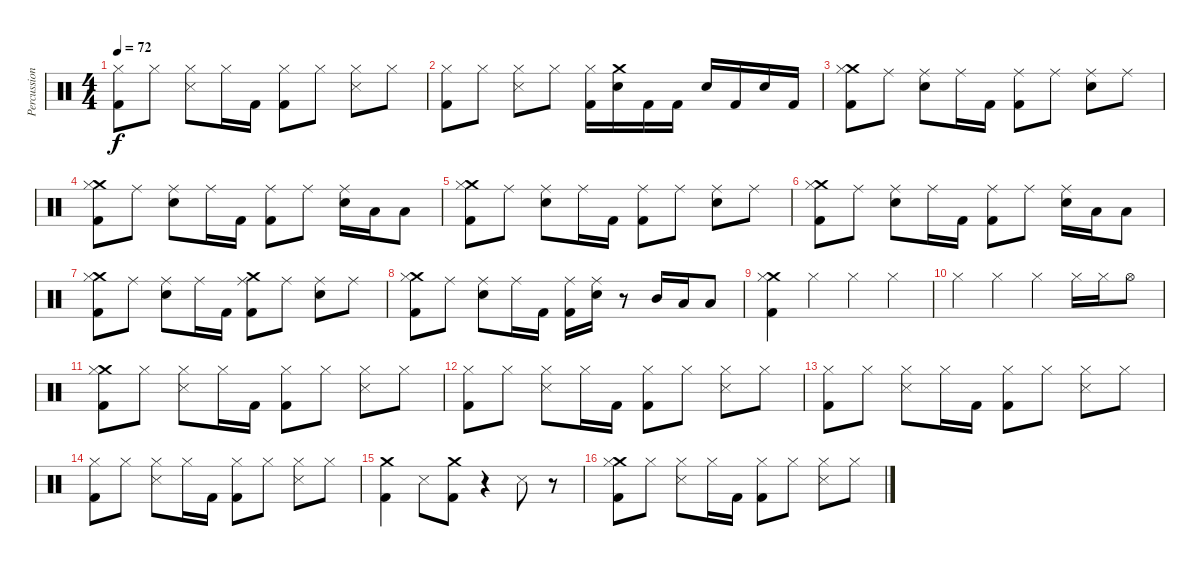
\track ("Percussion" "Percussion") {instrument percussion}
\staff {score}
\articulation defaults
\ts (4 4)
\tempo 72
\clef neutral
\ks c
("Hi-Hat (closed)" "Kick (hit) 2").8{dy f} "Hi-Hat (closed)".8 ("Hi-Hat (closed)" "Metronome (hit)").8 "Hi-Hat (closed)".16 "Kick (hit) 2".16 ("Hi-Hat (closed)" "Kick (hit) 2").8 "Hi-Hat (closed)".8 ("Hi-Hat (closed)" "Metronome (hit)").8 "Hi-Hat (closed)".8 |
("Hi-Hat (closed)" "Kick (hit) 2").8 "Hi-Hat (closed)".8 ("Hi-Hat (closed)" "Metronome (hit)").8 "Hi-Hat (closed)".8 ("Hi-Hat (closed)" "Kick (hit) 2").16 ("Crash medium (hit)" "Snare (hit) 2").16 "Kick (hit) 2".16 "Kick (hit) 2".16 "Snare (hit) 2".16 "Kick (hit) 2".16 "Snare (hit) 2".16 "Kick (hit) 2".16 |
("Crash medium (hit)" "Hi-Hat (closed)" "Kick (hit) 2").8 "Ride (middle)".8 ("Ride (middle)" "Snare (hit) 2").8 "Ride (middle)".16 "Kick (hit) 2".16 ("Ride (middle)" "Kick (hit) 2").8 "Ride (middle)".8 ("Ride (middle)" "Snare (hit) 2").8 "Ride (middle)".8 |
("Crash medium (hit)" "Hi-Hat (closed)" "Kick (hit) 2").8 "Ride (middle)".8 ("Ride (middle)" "Snare (hit) 2").8 "Ride (middle)".16 "Kick (hit) 2".16 ("Ride (middle)" "Kick (hit) 2").8 "Ride (middle)".8 ("Ride (middle)" "Snare (hit) 2").16 "Low Tom (hit)".16 "Low Floor Tom (hit)".8 |
("Crash medium (hit)" "Hi-Hat (closed)" "Kick (hit) 2").8 "Ride (middle)".8 ("Ride (middle)" "Snare (hit) 2").8 "Ride (middle)".16 "Kick (hit) 2".16 ("Ride (middle)" "Kick (hit) 2").8 "Ride (middle)".8 ("Ride (middle)" "Snare (hit) 2").8 "Ride (middle)".8 |
("Crash medium (hit)" "Hi-Hat (closed)" "Kick (hit) 2").8 "Ride (middle)".8 ("Ride (middle)" "Snare (hit) 2").8 "Ride (middle)".16 "Kick (hit) 2".16 ("Ride (middle)" "Kick (hit) 2").8 "Ride (middle)".8 ("Ride (middle)" "Snare (hit) 2").16 "Low Tom (hit)".16 "Low Floor Tom (hit)".8 |
("Crash medium (hit)" "Hi-Hat (closed)" "Kick (hit) 2").8 "Ride (middle)".8 ("Ride (middle)" "Snare (hit) 2").8 "Ride (middle)".16 "Kick (hit) 2".16 ("Crash medium (hit)" "Ride (middle)" "Kick (hit) 2").8 "Ride (middle)".8 ("Ride (middle)" "Snare (hit) 2").8 "Ride (middle)".8 |
("Crash medium (hit)" "Hi-Hat (closed)" "Kick (hit) 2").8 "Ride (middle)".8 ("Ride (middle)" "Snare (hit) 2").8 "Ride (middle)".16 "Kick (hit) 2".16 ("Ride (middle)" "Kick (hit) 2").16 ("Ride (middle)" "Snare (hit) 2").16 r.8 "Mid Tom (hit)".16 "Low Tom (hit)".16 "Low Floor Tom (hit)".8 |
("Crash medium (hit)" "Hi-Hat (closed)" "Kick (hit) 2").4 "Hi-Hat (closed)".4 "Hi-Hat (closed)".4 "Hi-Hat (closed)".4 |
"Hi-Hat (closed)".4 "Hi-Hat (closed)".4 "Hi-Hat (closed)".4 "Hi-Hat (closed)".16 "Hi-Hat (closed)".16 "Hi-Hat (open)".8 |
("Crash medium (hit)" "Hi-Hat (closed)" "Kick (hit) 2").8 "Hi-Hat (closed)".8 ("Hi-Hat (closed)" "Metronome (hit)").8 "Hi-Hat (closed)".16 "Kick (hit) 2".16 ("Hi-Hat (closed)" "Kick (hit) 2").8 "Hi-Hat (closed)".8 ("Hi-Hat (closed)" "Metronome (hit)").8 "Hi-Hat (closed)".8 |
("Hi-Hat (closed)" "Kick (hit) 2").8 "Hi-Hat (closed)".8 ("Hi-Hat (closed)" "Metronome (hit)").8 "Hi-Hat (closed)".16 "Kick (hit) 2".16 ("Hi-Hat (closed)" "Kick (hit) 2").8 "Hi-Hat (closed)".8 ("Hi-Hat (closed)" "Metronome (hit)").8 "Hi-Hat (closed)".8 |
("Hi-Hat (closed)" "Kick (hit) 2").8 "Hi-Hat (closed)".8 ("Hi-Hat (closed)" "Metronome (hit)").8 "Hi-Hat (closed)".16 "Kick (hit) 2".16 ("Hi-Hat (closed)" "Kick (hit) 2").8 "Hi-Hat (closed)".8 ("Hi-Hat (closed)" "Metronome (hit)").8 "Hi-Hat (closed)".8 |
("Hi-Hat (closed)" "Kick (hit) 2").8 "Hi-Hat (closed)".8 ("Hi-Hat (closed)" "Metronome (hit)").8 "Hi-Hat (closed)".16 "Kick (hit) 2".16 ("Hi-Hat (closed)" "Kick (hit) 2").8 "Hi-Hat (closed)".8 ("Hi-Hat (closed)" "Metronome (hit)").8 "Hi-Hat (closed)".8 |
("Crash medium (hit)" "Kick (hit) 2").4 "Metronome (hit)".8 ("Crash medium (hit)" "Kick (hit) 2").8 r.4 "Metronome (hit)".8 r.8 |
("Crash medium (hit)" "Hi-Hat (closed)" "Kick (hit) 2").8 "Hi-Hat (closed)".8 ("Hi-Hat (closed)" "Metronome (hit)").8 "Hi-Hat (closed)".16 "Kick (hit) 2".16 ("Hi-Hat (closed)" "Kick (hit) 2").8 "Hi-Hat (closed)".8 ("Hi-Hat (closed)" "Metronome (hit)").8 "Hi-Hat (closed)".8
